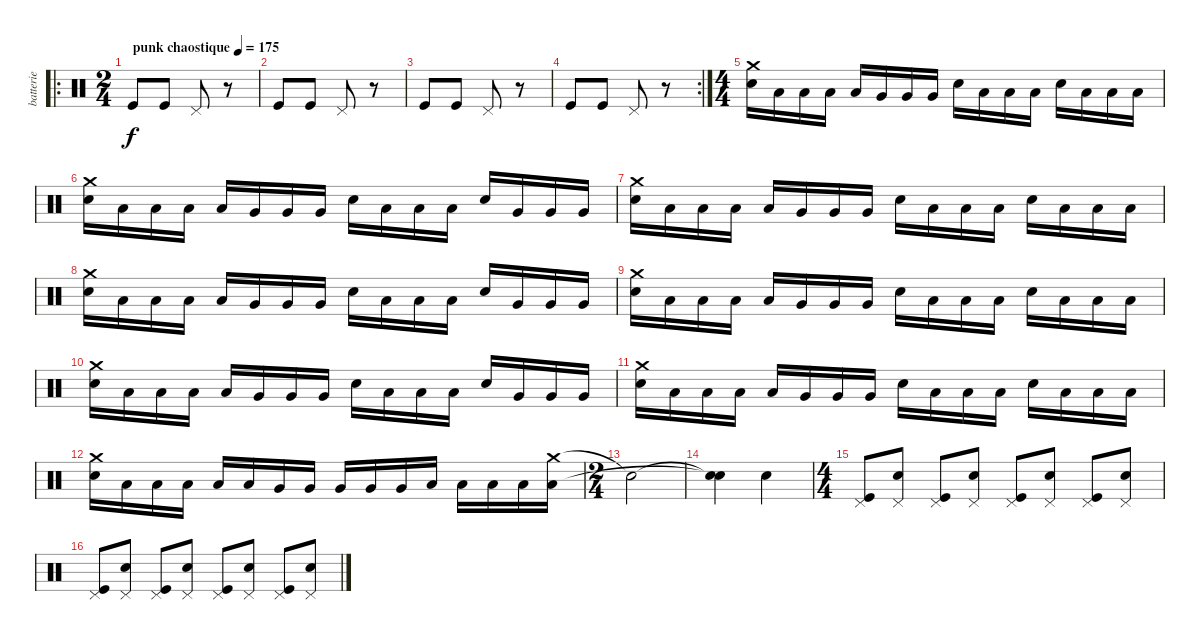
\track ("batterie" "batterie") {instrument percussion}
\staff {score}
\articulation defaults
\ro
\ts (2 4)
\tempo (175 "punk chaostique")
\clef neutral
\ks c "Kick (hit)".8{dy f} "Kick (hit)".8 "Pedal Hi-Hat (hit)".8
r.8 |
"Kick (hit)".8 "Kick (hit)".8 "Pedal Hi-Hat (hit)".8 r.8 |
"Kick (hit)".8 "Kick (hit)".8 "Pedal Hi-Hat (hit)".8 r.8 |
\rc 2 "Kick (hit)".8 "Kick (hit)".8 "Pedal Hi-Hat (hit)".8
r.8 |
\ts (4 4)
("Crash medium (hit)" "Snare (hit) 2").16 "Low Tom (hit)".16 "Low Tom (hit)".16 "Low Tom (hit)".16 "Low Tom (hit)".16 "Very Low Tom (hit)".16 "Very Low Tom (hit)".16 "Very Low Tom (hit)".16 "Snare (hit) 2".16 "Low Floor Tom (hit)".16 "Low Floor Tom (hit)".16 "Low Floor Tom (hit)".16 "Snare (hit) 2".16 "Low Tom (hit)".16 "Low Tom (hit)".16 "Low Tom (hit)".16 |
("Crash medium (hit)" "Snare (hit) 2").16 "Low Tom (hit)".16 "Low Tom (hit)".16 "Low Tom (hit)".16 "Low Tom (hit)".16 "Very Low Tom (hit)".16 "Very Low Tom (hit)".16 "Very Low Tom (hit)".16 "Snare (hit) 2".16 "Low Floor Tom (hit)".16 "Low Floor Tom (hit)".16 "Low Floor Tom (hit)".16 "Snare (hit) 2".16 "Very Low Tom (hit)".16 "Very Low Tom (hit)".16 "Very Low Tom (hit)".16 |
("Crash medium (hit)" "Snare (hit) 2").16 "Low Tom (hit)".16 "Low Tom (hit)".16 "Low Tom (hit)".16 "Low Tom (hit)".16 "Very Low Tom (hit)".16 "Very Low Tom (hit)".16 "Very Low Tom (hit)".16 "Snare (hit) 2".16 "Low Floor Tom (hit)".16 "Low Floor Tom (hit)".16 "Low Floor Tom (hit)".16 "Snare (hit) 2".16 "Low Tom (hit)".16 "Low Tom (hit)".16 "Low Tom (hit)".16 |
("Crash medium (hit)" "Snare (hit) 2").16 "Low Tom (hit)".16 "Low Tom (hit)".16 "Low Tom (hit)".16 "Low Tom (hit)".16 "Very Low Tom (hit)".16 "Very Low Tom (hit)".16 "Very Low Tom (hit)".16 "Snare (hit) 2".16 "Low Floor Tom (hit)".16 "Low Floor Tom (hit)".16 "Low Floor Tom (hit)".16 "Snare (hit) 2".16 "Very Low Tom (hit)".16 "Very Low Tom (hit)".16 "Very Low Tom (hit)".16 |
("Crash medium (hit)" "Snare (hit) 2").16 "Low Tom (hit)".16 "Low Tom (hit)".16 "Low Tom (hit)".16 "Low Tom (hit)".16 "Very Low Tom (hit)".16 "Very Low Tom (hit)".16 "Very Low Tom (hit)".16 "Snare (hit) 2".16 "Low Floor Tom (hit)".16 "Low Floor Tom (hit)".16 "Low Floor Tom (hit)".16 "Snare (hit) 2".16 "Low Tom (hit)".16 "Low Tom (hit)".16 "Low Tom (hit)".16 |
("Crash medium (hit)" "Snare (hit) 2").16 "Low Tom (hit)".16 "Low Tom (hit)".16 "Low Tom (hit)".16 "Low Tom (hit)".16 "Very Low Tom (hit)".16 "Very Low Tom (hit)".16 "Very Low Tom (hit)".16 "Snare (hit) 2".16 "Low Floor Tom (hit)".16 "Low Floor Tom (hit)".16 "Low Floor Tom (hit)".16 "Snare (hit) 2".16 "Very Low Tom (hit)".16 "Very Low Tom (hit)".16 "Very Low Tom (hit)".16 |
("Crash medium (hit)" "Snare (hit) 2").16 "Low Tom (hit)".16 "Low Tom (hit)".16 "Low Tom (hit)".16 "Low Tom (hit)".16 "Very Low Tom (hit)".16 "Very Low Tom (hit)".16 "Very Low Tom (hit)".16 "Snare (hit) 2".16 "Low Floor Tom (hit)".16 "Low Floor Tom (hit)".16 "Low Floor Tom (hit)".16 "Snare (hit) 2".16 "Low Tom (hit)".16 "Low Tom (hit)".16 "Low Tom (hit)".16 |
("Crash medium (hit)" "Snare (hit) 2").16 "Low Tom (hit)".16 "Low Tom (hit)".16 "Low Tom (hit)".16 "Low Tom (hit)".16 "Low Tom (hit)".16 "Very Low Tom (hit)".16 "Very Low Tom (hit)".16 "Very Low Tom (hit)".16 "Very Low Tom (hit)".16 "Very Low Tom (hit)".16 "Low Floor Tom (hit)".16 "Low Floor Tom (hit)".16 "Low Floor Tom (hit)".16 "Low Floor Tom (hit)".16 ("Crash medium (hit)" "Low Floor Tom (hit)").16 |
\ts (2 4)
"Snare (hit)"{t}.2 |
("Snare (hit)"{t} "Snare (hit)"{t}).4 "Snare (hit) 2".4 |
\ts (4 4)
("Pedal Hi-Hat (hit)" "Kick (hit)").8 ("Pedal Hi-Hat (hit)" "Snare (hit) 2").8 ("Pedal Hi-Hat (hit)" "Kick (hit)").8 ("Pedal Hi-Hat (hit)" "Snare (hit) 2").8 ("Pedal Hi-Hat (hit)" "Kick (hit)").8 ("Pedal Hi-Hat (hit)" "Snare (hit) 2").8 ("Pedal Hi-Hat (hit)" "Kick (hit)").8 ("Pedal Hi-Hat (hit)" "Snare (hit) 2").8 |
("Pedal Hi-Hat (hit)" "Kick (hit)").8 ("Pedal Hi-Hat (hit)" "Snare (hit) 2").8 ("Pedal Hi-Hat (hit)" "Kick (hit)").8 ("Pedal Hi-Hat (hit)" "Snare (hit) 2").8 ("Pedal Hi-Hat (hit)" "Kick (hit)").8 ("Pedal Hi-Hat (hit)" "Snare (hit) 2").8 ("Pedal Hi-Hat (hit)" "Kick (hit)").8 ("Pedal Hi-Hat (hit)" "Snare (hit) 2").8
